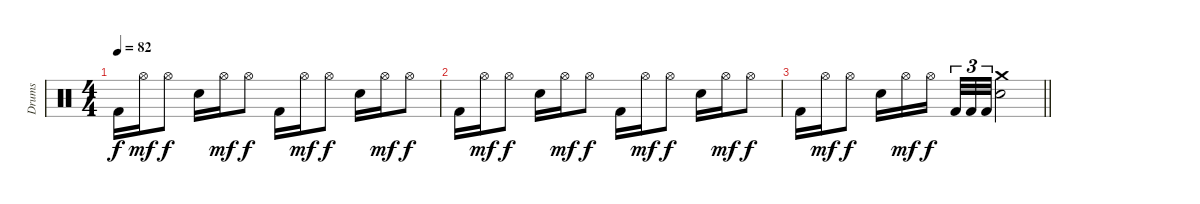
\track ("Drums" "Drums") {instrument percussion}
\staff {score}
\articulation defaults
\ts (4 4)
\tempo 82
\clef neutral
\ks c "Kick (hit) 2".16{dy f} "Hi-Hat (open)".16{dy mf} "Hi-Hat (open)".8{dy f} "Snare (hit) 2".16 "Hi-Hat (open)".16{dy mf} "Hi-Hat (open)".8{dy f} "Kick (hit) 2".16 "Hi-Hat (open)".16{dy mf} "Hi-Hat (open)".8{dy f} "Snare (hit) 2".16 "Hi-Hat (open)".16{dy mf} "Hi-Hat (open)".8{dy f}
|
"Kick (hit) 2".16 "Hi-Hat (open)".16{dy mf} "Hi-Hat (open)".8{dy f} "Snare (hit) 2".16 "Hi-Hat (open)".16{dy mf} "Hi-Hat (open)".8{dy f} "Kick (hit) 2".16 "Hi-Hat (open)".16{dy mf} "Hi-Hat (open)".8{dy f} "Snare (hit) 2".16 "Hi-Hat (open)".16{dy mf} "Hi-Hat (open)".8{dy f} |
\barLineRight lightlight "Kick (hit) 2".16 "Hi-Hat (open)".16{dy mf} "Hi-Hat (open)".8{dy f} "Snare (hit) 2".16 "Hi-Hat (open)".16{dy mf} "Hi-Hat (open)".16{dy f beam splitsecondary} "Kick (hit) 2".32{tu (3 2)} "Kick (hit) 2".32{tu (3 2)} "Kick (hit) 2".32{tu (3 2)}
("Crash medium (hit)" "Snare (hit) 2").2
